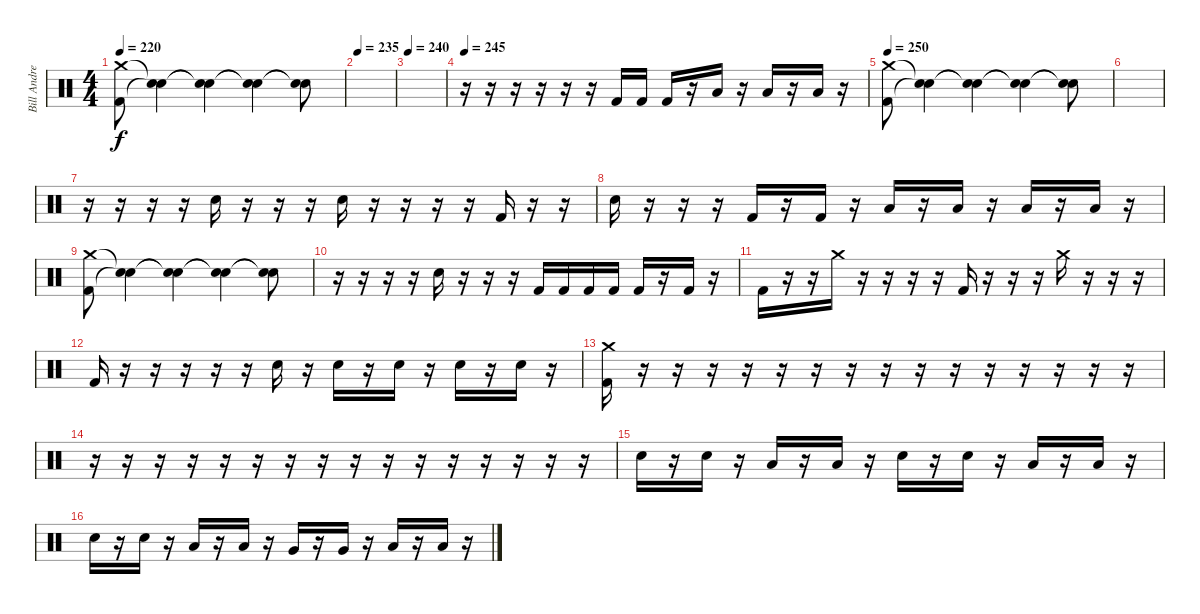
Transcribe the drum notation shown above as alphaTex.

\track ("Bill Andrews" "Bill Andre") {instrument percussion}
\staff {score}
\articulation defaults
\ts (4 4)
\tempo 220
\clef neutral
\ks c
("Crash medium (hit)" "Kick (hit) 2").8{dy f} ("Snare (hit)"{t} "Snare (hit)"{t}).4 ("Snare (hit)"{t} "Snare (hit)"{t}).4 ("Snare (hit)"{t} "Snare (hit)"{t}).4 ("Snare (hit)"{t} "Snare (hit)"{t}).8 |
\tempo 235
|
\tempo 240
|
\tempo 245
r.16 r.16 r.16 r.16 r.16 r.16 "Kick (hit) 2".16 "Kick (hit) 2".16 "Kick (hit) 2".16 r.16 "Low Floor Tom (hit)".16 r.16 "Low Floor Tom (hit)".16 r.16 "Low Floor Tom (hit)".16 r.16 |
\tempo 250
("Crash medium (hit)" "Kick (hit) 2").8 ("Snare (hit)"{t} "Snare (hit)"{t}).4 ("Snare (hit)"{t} "Snare (hit)"{t}).4 ("Snare (hit)"{t} "Snare (hit)"{t}).4 ("Snare (hit)"{t} "Snare (hit)"{t}).8 |
|
r.16 r.16 r.16 r.16 "Snare (hit) 2".16 r.16 r.16 r.16 "Snare (hit) 2".16 r.16 r.16 r.16 r.16 "Kick (hit) 2".16 r.16 r.16 |
"Snare (hit) 2".16 r.16 r.16 r.16 "Kick (hit) 2".16 r.16 "Kick (hit) 2".16 r.16 "Low Tom (hit)".16 r.16 "Low Tom (hit)".16 r.16 "Low Tom (hit)".16 r.16 "Low Floor Tom (hit)".16 r.16 |
("Crash medium (hit)" "Kick (hit) 2").8 ("Snare (hit)"{t} "Snare (hit)"{t}).4 ("Snare (hit)"{t} "Snare (hit)"{t}).4 ("Snare (hit)"{t} "Snare (hit)"{t}).4 ("Snare (hit)"{t} "Snare (hit)"{t}).8 |
r.16 r.16 r.16 r.16 "Snare (hit) 2".16 r.16 r.16 r.16 "Kick (hit) 2".16 "Kick (hit) 2".16 "Kick (hit) 2".16 "Kick (hit) 2".16 "Kick (hit) 2".16 r.16 "Kick (hit) 2".16 r.16 |
"Kick (hit) 2".16 r.16 r.16 "Crash medium (hit)".16 r.16 r.16 r.16 r.16 "Kick (hit) 2".16 r.16 r.16 r.16 "Crash medium (hit)".16 r.16 r.16 r.16 |
"Kick (hit) 2".16 r.16 r.16 r.16 r.16 r.16 "Snare (hit) 2".16 r.16 "Snare (hit) 2".16 r.16 "Snare (hit) 2".16 r.16 "Snare (hit) 2".16 r.16 "Snare (hit) 2".16 r.16 |
("Crash medium (hit)" "Kick (hit) 2").16 r.16 r.16 r.16 r.16 r.16 r.16 r.16 r.16 r.16 r.16 r.16 r.16 r.16 r.16 r.16 |
r.16 r.16 r.16 r.16 r.16 r.16 r.16 r.16 r.16 r.16 r.16 r.16 r.16 r.16 r.16 r.16 |
"Snare (hit) 2".16 r.16 "Snare (hit) 2".16 r.16 "Low Tom (hit)".16 r.16 "Low Tom (hit)".16 r.16 "Snare (hit) 2".16 r.16 "Snare (hit) 2".16 r.16 "Low Tom (hit)".16 r.16 "Low Tom (hit)".16 r.16 |
"Snare (hit) 2".16 r.16 "Snare (hit) 2".16 r.16 "Low Tom (hit)".16 r.16 "Low Tom (hit)".16 r.16 "Very Low Tom (hit)".16 r.16 "Very Low Tom (hit)".16 r.16 "Low Floor Tom (hit)".16 r.16 "Low Floor Tom (hit)".16 r.16
